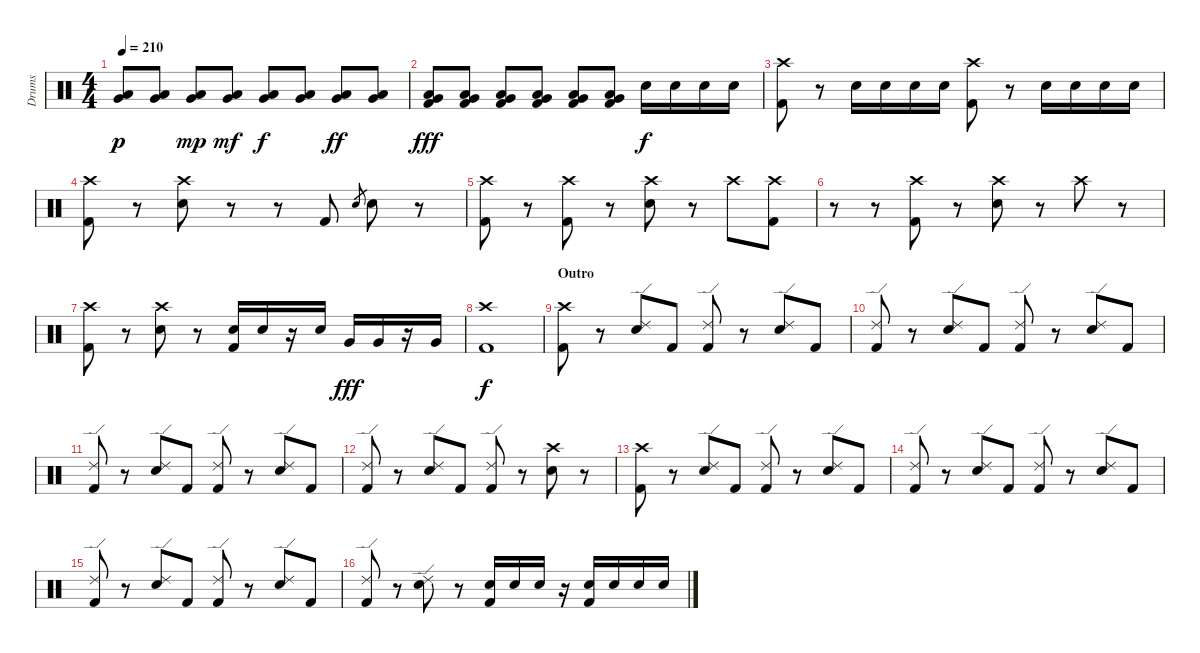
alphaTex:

\track ("Drums" "Drums") {instrument percussion}
\staff {score}
\articulation defaults
\ts (4 4)
\tempo 210
\clef neutral
\ks c
("Very Low Tom (hit)" "Low Floor Tom (hit)").8{dy p} ("Very Low Tom (hit)" "Low Floor Tom (hit)").8 ("Very Low Tom (hit)" "Low Floor Tom (hit)").8{dy mp} ("Very Low Tom (hit)" "Low Floor Tom (hit)").8{dy mf} ("Very Low Tom (hit)" "Low Floor Tom (hit)").8{dy f} ("Very Low Tom (hit)" "Low Floor Tom (hit)").8 ("Very Low Tom (hit)" "Low Floor Tom (hit)").8{dy ff} ("Very Low Tom (hit)" "Low Floor Tom (hit)").8 |
("Very Low Tom (hit)" "Low Floor Tom (hit)" "Kick (hit) 2").8{dy fff} ("Very Low Tom (hit)" "Low Floor Tom (hit)" "Kick (hit) 2").8 ("Very Low Tom (hit)" "Low Floor Tom (hit)" "Kick (hit) 2").8 ("Very Low Tom (hit)" "Low Floor Tom (hit)" "Kick (hit) 2").8 ("Very Low Tom (hit)" "Low Floor Tom (hit)" "Kick (hit) 2").8 ("Very Low Tom (hit)" "Low Floor Tom (hit)" "Kick (hit) 2").8 "Electric Snare (hit)".16{dy f} "Electric Snare (hit)".16 "Electric Snare (hit)".16 "Electric Snare (hit)".16 |
("Crash high (hit)" "Kick (hit) 2").8 r.8 "Electric Snare (hit)".16 "Electric Snare (hit)".16 "Electric Snare (hit)".16 "Electric Snare (hit)".16 ("Crash high (hit)" "Kick (hit) 2").8 r.8 "Electric Snare (hit)".16 "Electric Snare (hit)".16 "Electric Snare (hit)".16 "Electric Snare (hit)".16 |
("Crash high (hit)" "Kick (hit) 2").8 r.8 ("Crash high (hit)" "Electric Snare (hit)").8 r.8 r.8 "Kick (hit) 2".8 "Electric Snare (hit)".8{gr} "Electric Snare (hit)".8 r.8 |
("Crash high (hit)" "Kick (hit) 2").8 r.8 ("Crash high (hit)" "Kick (hit) 2").8 r.8 ("Crash high (hit)" "Electric Snare (hit)").8 r.8 "Crash high (hit)".8 ("Crash high (hit)" "Kick (hit) 2").8 |
r.8 r.8 ("Crash high (hit)" "Kick (hit) 2").8 r.8 ("Crash high (hit)" "Electric Snare (hit)").8 r.8 "Crash high (hit)".8 r.8 |
("Crash high (hit)" "Kick (hit) 2").8 r.8 ("Crash high (hit)" "Electric Snare (hit)").8 r.8 ("Electric Snare (hit)" "Kick (hit) 2").16 "Electric Snare (hit)".16 r.16 "Electric Snare (hit)".16 "Very Low Tom (hit)".16{dy fff} "Very Low Tom (hit)".16 r.16 "Very Low Tom (hit)".16 |
("Crash high (hit)" "Kick (hit) 2").1{dy f} |
\section ("" "Outro")
("Crash high (hit)" "Kick (hit) 2").8 r.8 ("Ride (edge) 2" "Electric Snare (hit)").8 "Kick (hit) 2".8 ("Ride (edge) 2" "Kick (hit) 2").8 r.8 ("Ride (edge) 2" "Electric Snare (hit)").8 "Kick (hit) 2".8 |
("Ride (edge) 2" "Kick (hit) 2").8 r.8 ("Ride (edge) 2" "Electric Snare (hit)").8 "Kick (hit) 2".8 ("Ride (edge) 2" "Kick (hit) 2").8 r.8 ("Ride (edge) 2" "Electric Snare (hit)").8 "Kick (hit) 2".8 |
("Ride (edge) 2" "Kick (hit) 2").8 r.8 ("Ride (edge) 2" "Electric Snare (hit)").8 "Kick (hit) 2".8 ("Ride (edge) 2" "Kick (hit) 2").8 r.8 ("Ride (edge) 2" "Electric Snare (hit)").8 "Kick (hit) 2".8 |
("Ride (edge) 2" "Kick (hit) 2").8 r.8 ("Ride (edge) 2" "Electric Snare (hit)").8 "Kick (hit) 2".8 ("Ride (edge) 2" "Kick (hit) 2").8 r.8 ("Crash high (hit)" "Electric Snare (hit)").8 r.8 |
("Crash high (hit)" "Kick (hit) 2").8 r.8 ("Ride (edge) 2" "Electric Snare (hit)").8 "Kick (hit) 2".8 ("Ride (edge) 2" "Kick (hit) 2").8 r.8 ("Ride (edge) 2" "Electric Snare (hit)").8 "Kick (hit) 2".8 |
("Ride (edge) 2" "Kick (hit) 2").8 r.8 ("Ride (edge) 2" "Electric Snare (hit)").8 "Kick (hit) 2".8 ("Ride (edge) 2" "Kick (hit) 2").8 r.8 ("Ride (edge) 2" "Electric Snare (hit)").8 "Kick (hit) 2".8 |
("Ride (edge) 2" "Kick (hit) 2").8 r.8 ("Ride (edge) 2" "Electric Snare (hit)").8 "Kick (hit) 2".8 ("Ride (edge) 2" "Kick (hit) 2").8 r.8 ("Ride (edge) 2" "Electric Snare (hit)").8 "Kick (hit) 2".8 |
("Ride (edge) 2" "Kick (hit) 2").8 r.8 ("Ride (edge) 2" "Electric Snare (hit)").8 r.8 ("Electric Snare (hit)" "Kick (hit) 2").16 "Electric Snare (hit)".16 "Electric Snare (hit)".16 r.16 ("Electric Snare (hit)" "Kick (hit) 2").16 "Electric Snare (hit)".16 "Electric Snare (hit)".16 "Electric Snare (hit)".16
